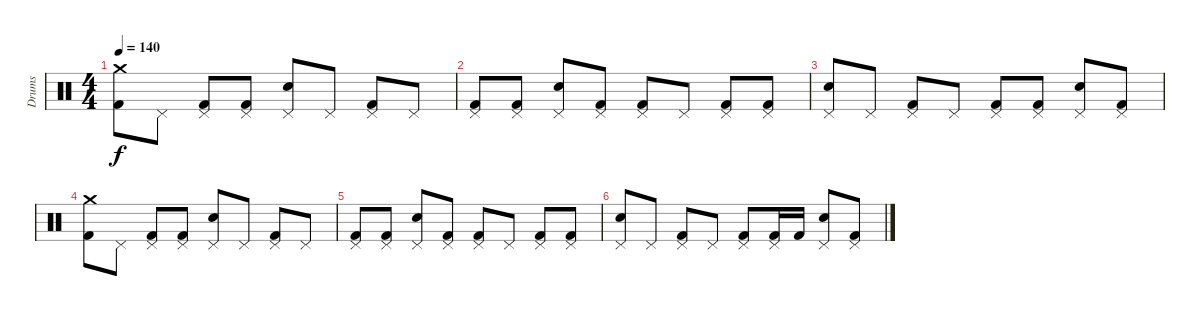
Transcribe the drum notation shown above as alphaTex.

\track ("Drums" "Drums") {instrument percussion}
\staff {score}
\articulation defaults
\ts (4 4)
\tempo 140
\clef neutral
\ks c
("Crash medium (hit)" "Kick (hit) 2").8{dy f} "Pedal Hi-Hat (hit)".8 ("Pedal Hi-Hat (hit)" "Kick (hit) 2").8 ("Pedal Hi-Hat (hit)" "Kick (hit) 2").8 ("Pedal Hi-Hat (hit)" "Electric Snare (hit)").8 "Pedal Hi-Hat (hit)".8 ("Pedal Hi-Hat (hit)" "Kick (hit) 2").8 "Pedal Hi-Hat (hit)".8 |
("Pedal Hi-Hat (hit)" "Kick (hit) 2").8 ("Pedal Hi-Hat (hit)" "Kick (hit) 2").8 ("Pedal Hi-Hat (hit)" "Electric Snare (hit)").8 ("Pedal Hi-Hat (hit)" "Kick (hit) 2").8 ("Pedal Hi-Hat (hit)" "Kick (hit) 2").8 "Pedal Hi-Hat (hit)".8 ("Pedal Hi-Hat (hit)" "Kick (hit) 2").8 ("Pedal Hi-Hat (hit)" "Kick (hit) 2").8 |
("Pedal Hi-Hat (hit)" "Electric Snare (hit)").8 "Pedal Hi-Hat (hit)".8 ("Pedal Hi-Hat (hit)" "Kick (hit) 2").8 "Pedal Hi-Hat (hit)".8 ("Pedal Hi-Hat (hit)" "Kick (hit) 2").8 ("Pedal Hi-Hat (hit)" "Kick (hit) 2").8 ("Pedal Hi-Hat (hit)" "Electric Snare (hit)").8 ("Pedal Hi-Hat (hit)" "Kick (hit) 2").8 |
("Crash medium (hit)" "Kick (hit) 2").8 "Pedal Hi-Hat (hit)".8 ("Pedal Hi-Hat (hit)" "Kick (hit) 2").8 ("Pedal Hi-Hat (hit)" "Kick (hit) 2").8 ("Pedal Hi-Hat (hit)" "Electric Snare (hit)").8 "Pedal Hi-Hat (hit)".8 ("Pedal Hi-Hat (hit)" "Kick (hit) 2").8 "Pedal Hi-Hat (hit)".8 |
("Pedal Hi-Hat (hit)" "Kick (hit) 2").8 ("Pedal Hi-Hat (hit)" "Kick (hit) 2").8 ("Pedal Hi-Hat (hit)" "Electric Snare (hit)").8 ("Pedal Hi-Hat (hit)" "Kick (hit) 2").8 ("Pedal Hi-Hat (hit)" "Kick (hit) 2").8 "Pedal Hi-Hat (hit)".8 ("Pedal Hi-Hat (hit)" "Kick (hit) 2").8 ("Pedal Hi-Hat (hit)" "Kick (hit) 2").8 |
("Pedal Hi-Hat (hit)" "Electric Snare (hit)").8 "Pedal Hi-Hat (hit)".8 ("Pedal Hi-Hat (hit)" "Kick (hit) 2").8 "Pedal Hi-Hat (hit)".8 ("Pedal Hi-Hat (hit)" "Kick (hit) 2").8 ("Pedal Hi-Hat (hit)" "Kick (hit) 2").16 "Kick (hit) 2".16 ("Pedal Hi-Hat (hit)" "Electric Snare (hit)").8 ("Pedal Hi-Hat (hit)" "Kick (hit) 2").8
